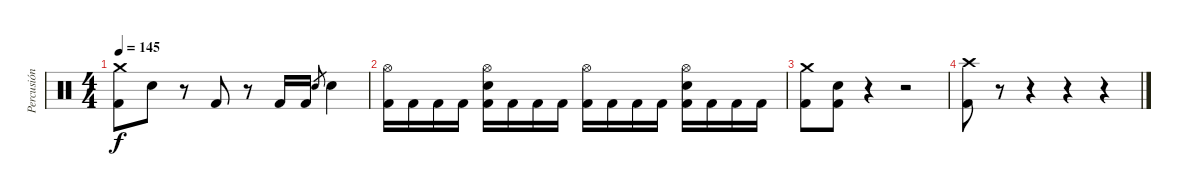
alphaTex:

\track ("Percusión" "Percusión") {instrument percussion}
\staff {score}
\articulation defaults
\ts (4 4)
\tempo 145
\clef neutral
\ks c
("Crash medium (hit)" "Kick (hit) 2").8{dy f} "Snare (hit) 2".8 r.8 "Kick (hit) 2".8 r.8 "Kick (hit) 2".16 "Kick (hit) 2".16 "Snare (hit) 2".8{gr} "Snare (hit) 2".4 |
("Hi-Hat (open)" "Kick (hit) 2").16 "Kick (hit) 2".16 "Kick (hit) 2".16 "Kick (hit) 2".16 ("Hi-Hat (open)" "Snare (hit) 2" "Kick (hit) 2").16 "Kick (hit) 2".16 "Kick (hit) 2".16 "Kick (hit) 2".16 ("Hi-Hat (open)" "Kick (hit) 2").16 "Kick (hit) 2".16 "Kick (hit) 2".16 "Kick (hit) 2".16 ("Hi-Hat (open)" "Snare (hit) 2" "Kick (hit) 2").16 "Kick (hit) 2".16 "Kick (hit) 2".16 "Kick (hit) 2".16 |
("Crash medium (hit)" "Kick (hit) 2").8 ("Snare (hit) 2" "Kick (hit) 2").8 r.4 r.2 |
("Crash high (hit)" "Kick (hit) 2").8 r.8 r.4 r.4 r.4
